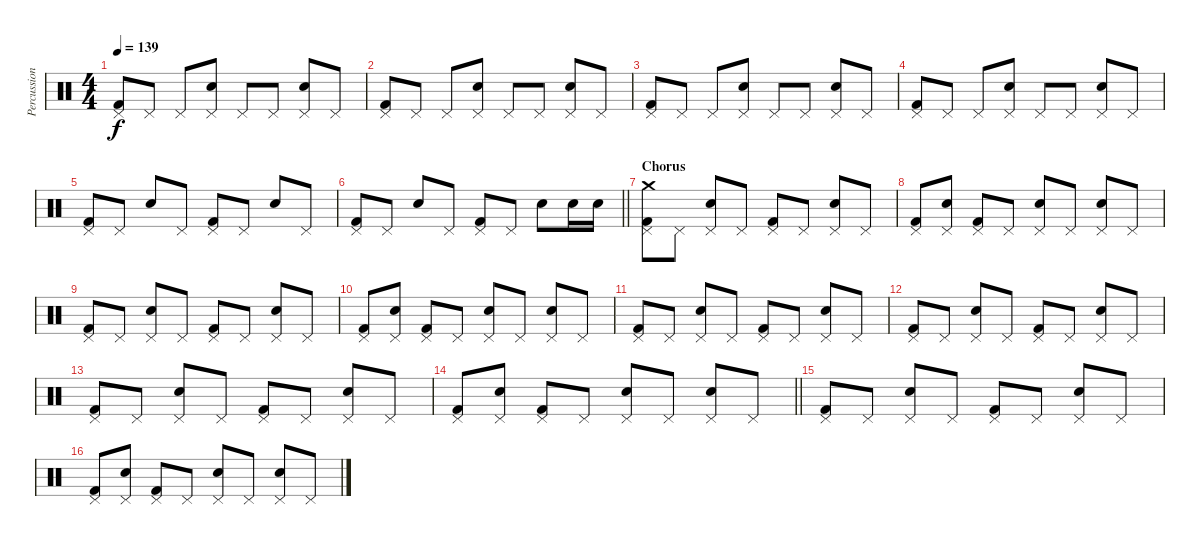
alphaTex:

\track ("Percussion" "Percussion") {instrument percussion}
\staff {score}
\articulation defaults
\ts (4 4)
\tempo 139
\clef neutral
\ks c
("Pedal Hi-Hat (hit)" "Kick (hit) 2").8{dy f} "Pedal Hi-Hat (hit)".8 "Pedal Hi-Hat (hit)".8 ("Snare (hit) 2" "Pedal Hi-Hat (hit)").8 "Pedal Hi-Hat (hit)".8 "Pedal Hi-Hat (hit)".8 ("Snare (hit) 2" "Pedal Hi-Hat (hit)").8 "Pedal Hi-Hat (hit)".8 |
("Pedal Hi-Hat (hit)" "Kick (hit) 2").8 "Pedal Hi-Hat (hit)".8 "Pedal Hi-Hat (hit)".8 ("Snare (hit) 2" "Pedal Hi-Hat (hit)").8 "Pedal Hi-Hat (hit)".8 "Pedal Hi-Hat (hit)".8 ("Snare (hit) 2" "Pedal Hi-Hat (hit)").8 "Pedal Hi-Hat (hit)".8 |
("Pedal Hi-Hat (hit)" "Kick (hit) 2").8 "Pedal Hi-Hat (hit)".8 "Pedal Hi-Hat (hit)".8 ("Snare (hit) 2" "Pedal Hi-Hat (hit)").8 "Pedal Hi-Hat (hit)".8 "Pedal Hi-Hat (hit)".8 ("Snare (hit) 2" "Pedal Hi-Hat (hit)").8 "Pedal Hi-Hat (hit)".8 |
("Pedal Hi-Hat (hit)" "Kick (hit) 2").8 "Pedal Hi-Hat (hit)".8 "Pedal Hi-Hat (hit)".8 ("Snare (hit) 2" "Pedal Hi-Hat (hit)").8 "Pedal Hi-Hat (hit)".8 "Pedal Hi-Hat (hit)".8 ("Snare (hit) 2" "Pedal Hi-Hat (hit)").8 "Pedal Hi-Hat (hit)".8 |
("Pedal Hi-Hat (hit)" "Kick (hit) 2").8 "Pedal Hi-Hat (hit)".8 "Snare (hit) 2".8 "Pedal Hi-Hat (hit)".8 ("Pedal Hi-Hat (hit)" "Kick (hit) 2").8 "Pedal Hi-Hat (hit)".8 "Snare (hit) 2".8 "Pedal Hi-Hat (hit)".8 |
\barLineRight lightlight
("Pedal Hi-Hat (hit)" "Kick (hit) 2").8 "Pedal Hi-Hat (hit)".8 "Snare (hit) 2".8 "Pedal Hi-Hat (hit)".8 ("Pedal Hi-Hat (hit)" "Kick (hit) 2").8 "Pedal Hi-Hat (hit)".8 "Snare (hit) 2".8 "Snare (hit) 2".16 "Snare (hit) 2".16 |
\section ("" "Chorus")
("Crash medium (hit)" "Kick (hit) 2" "Pedal Hi-Hat (hit)").8 "Pedal Hi-Hat (hit)".8 ("Snare (hit) 2" "Pedal Hi-Hat (hit)").8 "Pedal Hi-Hat (hit)".8 ("Kick (hit) 2" "Pedal Hi-Hat (hit)").8 "Pedal Hi-Hat (hit)".8 ("Snare (hit) 2" "Pedal Hi-Hat (hit)").8 "Pedal Hi-Hat (hit)".8 |
("Kick (hit) 2" "Pedal Hi-Hat (hit)").8 ("Snare (hit) 2" "Pedal Hi-Hat (hit)").8 ("Kick (hit) 2" "Pedal Hi-Hat (hit)").8 "Pedal Hi-Hat (hit)".8 ("Snare (hit) 2" "Pedal Hi-Hat (hit)").8 "Pedal Hi-Hat (hit)".8 ("Snare (hit) 2" "Pedal Hi-Hat (hit)").8 "Pedal Hi-Hat (hit)".8 |
("Kick (hit) 2" "Pedal Hi-Hat (hit)").8 "Pedal Hi-Hat (hit)".8 ("Snare (hit) 2" "Pedal Hi-Hat (hit)").8 "Pedal Hi-Hat (hit)".8 ("Kick (hit) 2" "Pedal Hi-Hat (hit)").8 "Pedal Hi-Hat (hit)".8 ("Snare (hit) 2" "Pedal Hi-Hat (hit)").8 "Pedal Hi-Hat (hit)".8 |
("Kick (hit) 2" "Pedal Hi-Hat (hit)").8 ("Snare (hit) 2" "Pedal Hi-Hat (hit)").8 ("Kick (hit) 2" "Pedal Hi-Hat (hit)").8 "Pedal Hi-Hat (hit)".8 ("Snare (hit) 2" "Pedal Hi-Hat (hit)").8 "Pedal Hi-Hat (hit)".8 ("Snare (hit) 2" "Pedal Hi-Hat (hit)").8 "Pedal Hi-Hat (hit)".8 |
("Kick (hit) 2" "Pedal Hi-Hat (hit)").8 "Pedal Hi-Hat (hit)".8 ("Snare (hit) 2" "Pedal Hi-Hat (hit)").8 "Pedal Hi-Hat (hit)".8 ("Kick (hit) 2" "Pedal Hi-Hat (hit)").8 "Pedal Hi-Hat (hit)".8 ("Snare (hit) 2" "Pedal Hi-Hat (hit)").8 "Pedal Hi-Hat (hit)".8 |
("Kick (hit) 2" "Pedal Hi-Hat (hit)").8 "Pedal Hi-Hat (hit)".8 ("Snare (hit) 2" "Pedal Hi-Hat (hit)").8 "Pedal Hi-Hat (hit)".8 ("Kick (hit) 2" "Pedal Hi-Hat (hit)").8 "Pedal Hi-Hat (hit)".8 ("Snare (hit) 2" "Pedal Hi-Hat (hit)").8 "Pedal Hi-Hat (hit)".8 |
("Kick (hit) 2" "Pedal Hi-Hat (hit)").8 "Pedal Hi-Hat (hit)".8 ("Snare (hit) 2" "Pedal Hi-Hat (hit)").8 "Pedal Hi-Hat (hit)".8 ("Kick (hit) 2" "Pedal Hi-Hat (hit)").8 "Pedal Hi-Hat (hit)".8 ("Snare (hit) 2" "Pedal Hi-Hat (hit)").8 "Pedal Hi-Hat (hit)".8 |
\barLineRight lightlight
("Kick (hit) 2" "Pedal Hi-Hat (hit)").8 ("Snare (hit) 2" "Pedal Hi-Hat (hit)").8 ("Kick (hit) 2" "Pedal Hi-Hat (hit)").8 "Pedal Hi-Hat (hit)".8 ("Snare (hit) 2" "Pedal Hi-Hat (hit)").8 "Pedal Hi-Hat (hit)".8 ("Snare (hit) 2" "Pedal Hi-Hat (hit)").8 "Pedal Hi-Hat (hit)".8 |
("Kick (hit) 2" "Pedal Hi-Hat (hit)").8 "Pedal Hi-Hat (hit)".8 ("Snare (hit) 2" "Pedal Hi-Hat (hit)").8 "Pedal Hi-Hat (hit)".8 ("Kick (hit) 2" "Pedal Hi-Hat (hit)").8 "Pedal Hi-Hat (hit)".8 ("Snare (hit) 2" "Pedal Hi-Hat (hit)").8 "Pedal Hi-Hat (hit)".8 |
("Kick (hit) 2" "Pedal Hi-Hat (hit)").8 ("Snare (hit) 2" "Pedal Hi-Hat (hit)").8 ("Kick (hit) 2" "Pedal Hi-Hat (hit)").8 "Pedal Hi-Hat (hit)".8 ("Snare (hit) 2" "Pedal Hi-Hat (hit)").8 "Pedal Hi-Hat (hit)".8 ("Snare (hit) 2" "Pedal Hi-Hat (hit)").8 "Pedal Hi-Hat (hit)".8
